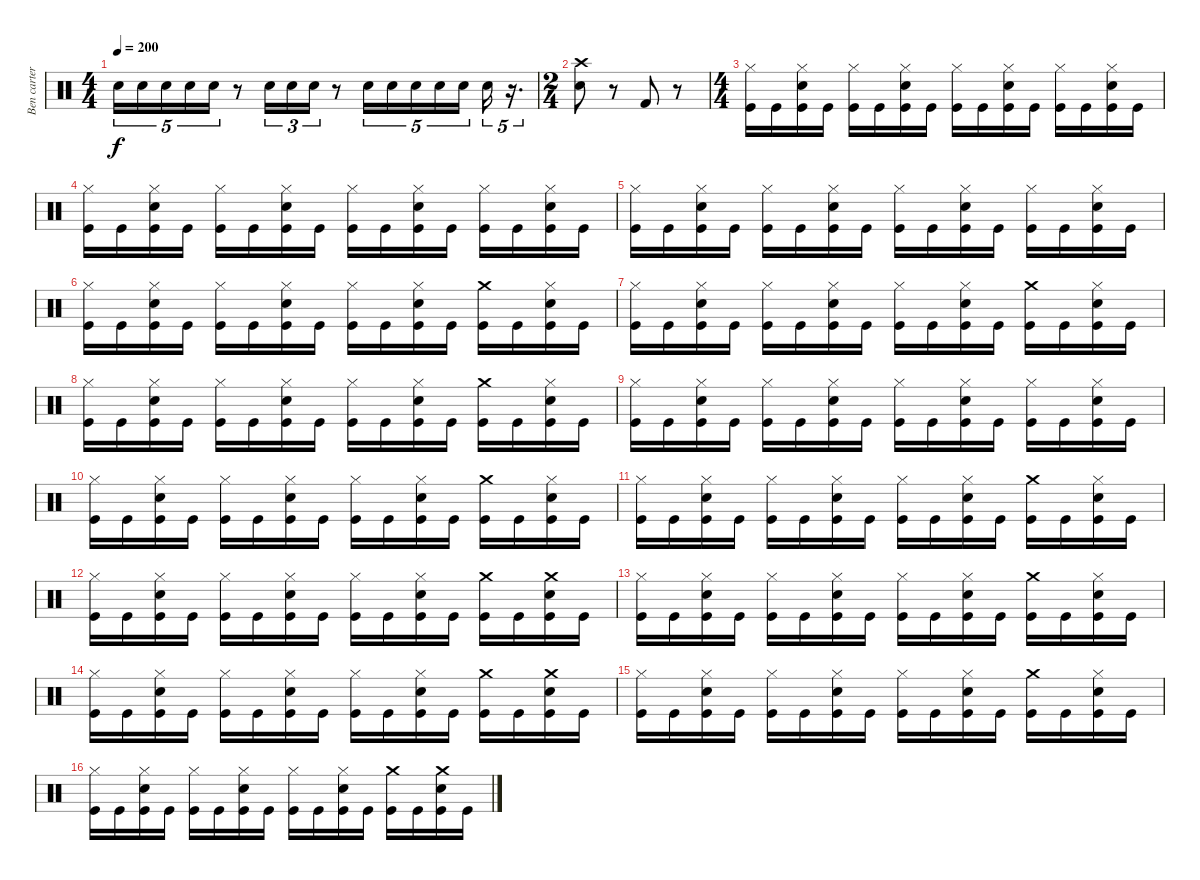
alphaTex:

\track ("Ben carter" "Ben carter") {instrument percussion}
\staff {score}
\articulation defaults
\ts (4 4)
\tempo 200
\clef neutral
\ks c "Electric Snare (hit)".16{tu (5 4) dy f} "Electric Snare (hit)".16{tu (5 4)} "Electric Snare (hit)".16{tu (5 4)} "Electric Snare (hit)".16{tu (5 4)} "Electric Snare (hit)".16{tu (5 4)}
r.8 "Electric Snare (hit)".16{tu (3 2)} "Electric Snare (hit)".16{tu (3 2)} "Electric Snare (hit)".16{tu (3 2)} r.8 "Electric Snare (hit)".16{tu (5 4)} "Electric Snare (hit)".16{tu (5 4)} "Electric Snare (hit)".16{tu (5 4)} "Electric Snare (hit)".16{tu (5 4)} "Electric Snare (hit)".16{tu (5 4) beam splitsecondary} "Electric Snare (hit)".16{tu (5 4)} r.16{d tu (5 4)} |
\ts (2 4)
("Crash high (hit)" "Electric Snare (hit)").8 r.8 "Kick (hit) 2".8 r.8 |
\ts (4 4)
("Hi-Hat (closed)" "Kick (hit)").16 "Kick (hit)".16 ("Hi-Hat (closed)" "Electric Snare (hit)" "Kick (hit)").16 "Kick (hit)".16 ("Hi-Hat (closed)" "Kick (hit)").16 "Kick (hit)".16 ("Hi-Hat (closed)" "Electric Snare (hit)" "Kick (hit)").16 "Kick (hit)".16 ("Hi-Hat (closed)" "Kick (hit)").16 "Kick (hit)".16 ("Hi-Hat (closed)" "Electric Snare (hit)" "Kick (hit)").16 "Kick (hit)".16 ("Hi-Hat (closed)" "Kick (hit)").16 "Kick (hit)".16 ("Hi-Hat (closed)" "Electric Snare (hit)" "Kick (hit)").16 "Kick (hit)".16 |
("Hi-Hat (closed)" "Kick (hit)").16 "Kick (hit)".16 ("Hi-Hat (closed)" "Electric Snare (hit)" "Kick (hit)").16 "Kick (hit)".16 ("Hi-Hat (closed)" "Kick (hit)").16 "Kick (hit)".16 ("Hi-Hat (closed)" "Electric Snare (hit)" "Kick (hit)").16 "Kick (hit)".16 ("Hi-Hat (closed)" "Kick (hit)").16 "Kick (hit)".16 ("Hi-Hat (closed)" "Electric Snare (hit)" "Kick (hit)").16 "Kick (hit)".16 ("Hi-Hat (closed)" "Kick (hit)").16 "Kick (hit)".16 ("Hi-Hat (closed)" "Electric Snare (hit)" "Kick (hit)").16 "Kick (hit)".16 |
("Hi-Hat (closed)" "Kick (hit)").16 "Kick (hit)".16 ("Hi-Hat (closed)" "Electric Snare (hit)" "Kick (hit)").16 "Kick (hit)".16 ("Hi-Hat (closed)" "Kick (hit)").16 "Kick (hit)".16 ("Hi-Hat (closed)" "Electric Snare (hit)" "Kick (hit)").16 "Kick (hit)".16 ("Hi-Hat (closed)" "Kick (hit)").16 "Kick (hit)".16 ("Hi-Hat (closed)" "Electric Snare (hit)" "Kick (hit)").16 "Kick (hit)".16 ("Hi-Hat (closed)" "Kick (hit)").16 "Kick (hit)".16 ("Hi-Hat (closed)" "Electric Snare (hit)" "Kick (hit)").16 "Kick (hit)".16 |
("Hi-Hat (closed)" "Kick (hit)").16 "Kick (hit)".16 ("Hi-Hat (closed)" "Electric Snare (hit)" "Kick (hit)").16 "Kick (hit)".16 ("Hi-Hat (closed)" "Kick (hit)").16 "Kick (hit)".16 ("Hi-Hat (closed)" "Electric Snare (hit)" "Kick (hit)").16 "Kick (hit)".16 ("Hi-Hat (closed)" "Kick (hit)").16 "Kick (hit)".16 ("Hi-Hat (closed)" "Electric Snare (hit)" "Kick (hit)").16 "Kick (hit)".16 ("Crash medium (hit)" "Kick (hit)").16 "Kick (hit)".16 ("Hi-Hat (closed)" "Electric Snare (hit)" "Kick (hit)").16 "Kick (hit)".16 |
("Hi-Hat (closed)" "Kick (hit)").16 "Kick (hit)".16 ("Hi-Hat (closed)" "Electric Snare (hit)" "Kick (hit)").16 "Kick (hit)".16 ("Hi-Hat (closed)" "Kick (hit)").16 "Kick (hit)".16 ("Hi-Hat (closed)" "Electric Snare (hit)" "Kick (hit)").16 "Kick (hit)".16 ("Hi-Hat (closed)" "Kick (hit)").16 "Kick (hit)".16 ("Hi-Hat (closed)" "Electric Snare (hit)" "Kick (hit)").16 "Kick (hit)".16 ("Crash medium (hit)" "Kick (hit)").16 "Kick (hit)".16 ("Hi-Hat (closed)" "Electric Snare (hit)" "Kick (hit)").16 "Kick (hit)".16 |
("Hi-Hat (closed)" "Kick (hit)").16 "Kick (hit)".16 ("Hi-Hat (closed)" "Electric Snare (hit)" "Kick (hit)").16 "Kick (hit)".16 ("Hi-Hat (closed)" "Kick (hit)").16 "Kick (hit)".16 ("Hi-Hat (closed)" "Electric Snare (hit)" "Kick (hit)").16 "Kick (hit)".16 ("Hi-Hat (closed)" "Kick (hit)").16 "Kick (hit)".16 ("Hi-Hat (closed)" "Electric Snare (hit)" "Kick (hit)").16 "Kick (hit)".16 ("Crash medium (hit)" "Kick (hit)").16 "Kick (hit)".16 ("Hi-Hat (closed)" "Electric Snare (hit)" "Kick (hit)").16 "Kick (hit)".16 |
("Hi-Hat (closed)" "Kick (hit)").16 "Kick (hit)".16 ("Hi-Hat (closed)" "Electric Snare (hit)" "Kick (hit)").16 "Kick (hit)".16 ("Hi-Hat (closed)" "Kick (hit)").16 "Kick (hit)".16 ("Hi-Hat (closed)" "Electric Snare (hit)" "Kick (hit)").16 "Kick (hit)".16 ("Hi-Hat (closed)" "Kick (hit)").16 "Kick (hit)".16 ("Hi-Hat (closed)" "Electric Snare (hit)" "Kick (hit)").16 "Kick (hit)".16 ("Hi-Hat (closed)" "Kick (hit)").16 "Kick (hit)".16 ("Hi-Hat (closed)" "Electric Snare (hit)" "Kick (hit)").16 "Kick (hit)".16 |
("Hi-Hat (closed)" "Kick (hit)").16 "Kick (hit)".16 ("Hi-Hat (closed)" "Electric Snare (hit)" "Kick (hit)").16 "Kick (hit)".16 ("Hi-Hat (closed)" "Kick (hit)").16 "Kick (hit)".16 ("Hi-Hat (closed)" "Electric Snare (hit)" "Kick (hit)").16 "Kick (hit)".16 ("Hi-Hat (closed)" "Kick (hit)").16 "Kick (hit)".16 ("Hi-Hat (closed)" "Electric Snare (hit)" "Kick (hit)").16 "Kick (hit)".16 ("Crash medium (hit)" "Kick (hit)").16 "Kick (hit)".16 ("Hi-Hat (closed)" "Electric Snare (hit)" "Kick (hit)").16 "Kick (hit)".16 |
("Hi-Hat (closed)" "Kick (hit)").16 "Kick (hit)".16 ("Hi-Hat (closed)" "Electric Snare (hit)" "Kick (hit)").16 "Kick (hit)".16 ("Hi-Hat (closed)" "Kick (hit)").16 "Kick (hit)".16 ("Hi-Hat (closed)" "Electric Snare (hit)" "Kick (hit)").16 "Kick (hit)".16 ("Hi-Hat (closed)" "Kick (hit)").16 "Kick (hit)".16 ("Hi-Hat (closed)" "Electric Snare (hit)" "Kick (hit)").16 "Kick (hit)".16 ("Crash medium (hit)" "Kick (hit)").16 "Kick (hit)".16 ("Hi-Hat (closed)" "Electric Snare (hit)" "Kick (hit)").16 "Kick (hit)".16 |
("Hi-Hat (closed)" "Kick (hit)").16 "Kick (hit)".16 ("Hi-Hat (closed)" "Electric Snare (hit)" "Kick (hit)").16 "Kick (hit)".16 ("Hi-Hat (closed)" "Kick (hit)").16 "Kick (hit)".16 ("Hi-Hat (closed)" "Electric Snare (hit)" "Kick (hit)").16 "Kick (hit)".16 ("Hi-Hat (closed)" "Kick (hit)").16 "Kick (hit)".16 ("Hi-Hat (closed)" "Electric Snare (hit)" "Kick (hit)").16 "Kick (hit)".16 ("Crash medium (hit)" "Kick (hit)").16 "Kick (hit)".16 ("Crash medium (hit)" "Electric Snare (hit)" "Kick (hit)").16 "Kick (hit)".16 |
("Hi-Hat (closed)" "Kick (hit)").16 "Kick (hit)".16 ("Hi-Hat (closed)" "Electric Snare (hit)" "Kick (hit)").16 "Kick (hit)".16 ("Hi-Hat (closed)" "Kick (hit)").16 "Kick (hit)".16 ("Hi-Hat (closed)" "Electric Snare (hit)" "Kick (hit)").16 "Kick (hit)".16 ("Hi-Hat (closed)" "Kick (hit)").16 "Kick (hit)".16 ("Hi-Hat (closed)" "Electric Snare (hit)" "Kick (hit)").16 "Kick (hit)".16 ("Crash medium (hit)" "Kick (hit)").16 "Kick (hit)".16 ("Hi-Hat (closed)" "Electric Snare (hit)" "Kick (hit)").16 "Kick (hit)".16 |
("Hi-Hat (closed)" "Kick (hit)").16 "Kick (hit)".16 ("Hi-Hat (closed)" "Electric Snare (hit)" "Kick (hit)").16 "Kick (hit)".16 ("Hi-Hat (closed)" "Kick (hit)").16 "Kick (hit)".16 ("Hi-Hat (closed)" "Electric Snare (hit)" "Kick (hit)").16 "Kick (hit)".16 ("Hi-Hat (closed)" "Kick (hit)").16 "Kick (hit)".16 ("Hi-Hat (closed)" "Electric Snare (hit)" "Kick (hit)").16 "Kick (hit)".16 ("Crash medium (hit)" "Kick (hit)").16 "Kick (hit)".16 ("Crash medium (hit)" "Electric Snare (hit)" "Kick (hit)").16 "Kick (hit)".16 |
("Hi-Hat (closed)" "Kick (hit)").16 "Kick (hit)".16 ("Hi-Hat (closed)" "Electric Snare (hit)" "Kick (hit)").16 "Kick (hit)".16 ("Hi-Hat (closed)" "Kick (hit)").16 "Kick (hit)".16 ("Hi-Hat (closed)" "Electric Snare (hit)" "Kick (hit)").16 "Kick (hit)".16 ("Hi-Hat (closed)" "Kick (hit)").16 "Kick (hit)".16 ("Hi-Hat (closed)" "Electric Snare (hit)" "Kick (hit)").16 "Kick (hit)".16 ("Crash medium (hit)" "Kick (hit)").16 "Kick (hit)".16 ("Hi-Hat (closed)" "Electric Snare (hit)" "Kick (hit)").16 "Kick (hit)".16 |
("Hi-Hat (closed)" "Kick (hit)").16 "Kick (hit)".16 ("Hi-Hat (closed)" "Electric Snare (hit)" "Kick (hit)").16 "Kick (hit)".16 ("Hi-Hat (closed)" "Kick (hit)").16 "Kick (hit)".16 ("Hi-Hat (closed)" "Electric Snare (hit)" "Kick (hit)").16 "Kick (hit)".16 ("Hi-Hat (closed)" "Kick (hit)").16 "Kick (hit)".16 ("Hi-Hat (closed)" "Electric Snare (hit)" "Kick (hit)").16 "Kick (hit)".16 ("Crash medium (hit)" "Kick (hit)").16 "Kick (hit)".16 ("Crash medium (hit)" "Electric Snare (hit)" "Kick (hit)").16 "Kick (hit)".16
